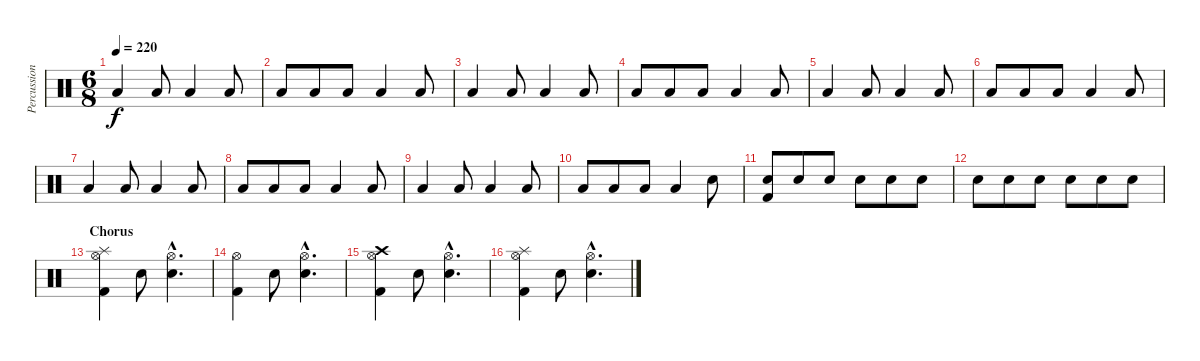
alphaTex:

\track ("Percussion" "Percussion") {instrument percussion}
\staff {score}
\articulation defaults
\ts (6 8)
\tempo 220
\clef neutral
\ks c "Low Floor Tom (hit)".4{dy f} "Low Floor Tom (hit)".8 "Low Tom (hit)".4 "Low Tom (hit)".8
|
"Low Floor Tom (hit)".8 "Low Floor Tom (hit)".8 "Low Floor Tom (hit)".8 "Low Tom (hit)".4 "Low Tom (hit)".8 |
"Low Floor Tom (hit)".4 "Low Floor Tom (hit)".8 "Low Tom (hit)".4 "Low Tom (hit)".8 |
"Low Floor Tom (hit)".8 "Low Floor Tom (hit)".8 "Low Floor Tom (hit)".8 "Low Tom (hit)".4 "Low Tom (hit)".8 |
"Low Floor Tom (hit)".4 "Low Floor Tom (hit)".8 "Low Tom (hit)".4 "Low Tom (hit)".8 |
"Low Floor Tom (hit)".8 "Low Floor Tom (hit)".8 "Low Floor Tom (hit)".8 "Low Tom (hit)".4 "Low Tom (hit)".8 |
"Low Floor Tom (hit)".4 "Low Floor Tom (hit)".8 "Low Tom (hit)".4 "Low Tom (hit)".8 |
"Low Floor Tom (hit)".8 "Low Floor Tom (hit)".8 "Low Floor Tom (hit)".8 "Low Tom (hit)".4 "Low Tom (hit)".8 |
"Low Floor Tom (hit)".4 "Low Floor Tom (hit)".8 "Low Tom (hit)".4 "Low Tom (hit)".8 |
"Low Floor Tom (hit)".8 "Low Floor Tom (hit)".8 "Low Floor Tom (hit)".8 "Low Tom (hit)".4 "Electric Snare (hit)".8{volume 11} |
("Electric Snare (hit)" "Kick (hit) 2").8 "Electric Snare (hit)".8 "Electric Snare (hit)".8 "Electric Snare (hit)".8 "Electric Snare (hit)".8 "Electric Snare (hit)".8 |
"Electric Snare (hit)".8 "Electric Snare (hit)".8 "Electric Snare (hit)".8 "Electric Snare (hit)".8 "Electric Snare (hit)".8 "Electric Snare (hit)".8 |
\section ("" "Chorus")
("Hi-Hat (open)" "Splash (hit)" "Kick (hit) 2").4 "Snare (hit) 2".8 ("Hi-Hat (open)"{hac} "Electric Snare (hit)"{hac}).4{d} |
("Hi-Hat (open)" "Kick (hit) 2").4 "Snare (hit) 2".8 ("Hi-Hat (open)"{hac} "Electric Snare (hit)"{hac}).4{d} |
("Hi-Hat (open)" "Crash high (hit)" "Kick (hit) 2").4 "Snare (hit) 2".8 ("Hi-Hat (open)"{hac} "Electric Snare (hit)"{hac}).4{d} |
("Hi-Hat (open)" "Splash (hit)" "Kick (hit) 2").4 "Snare (hit) 2".8 ("Hi-Hat (open)"{hac} "Electric Snare (hit)"{hac}).4{d}
